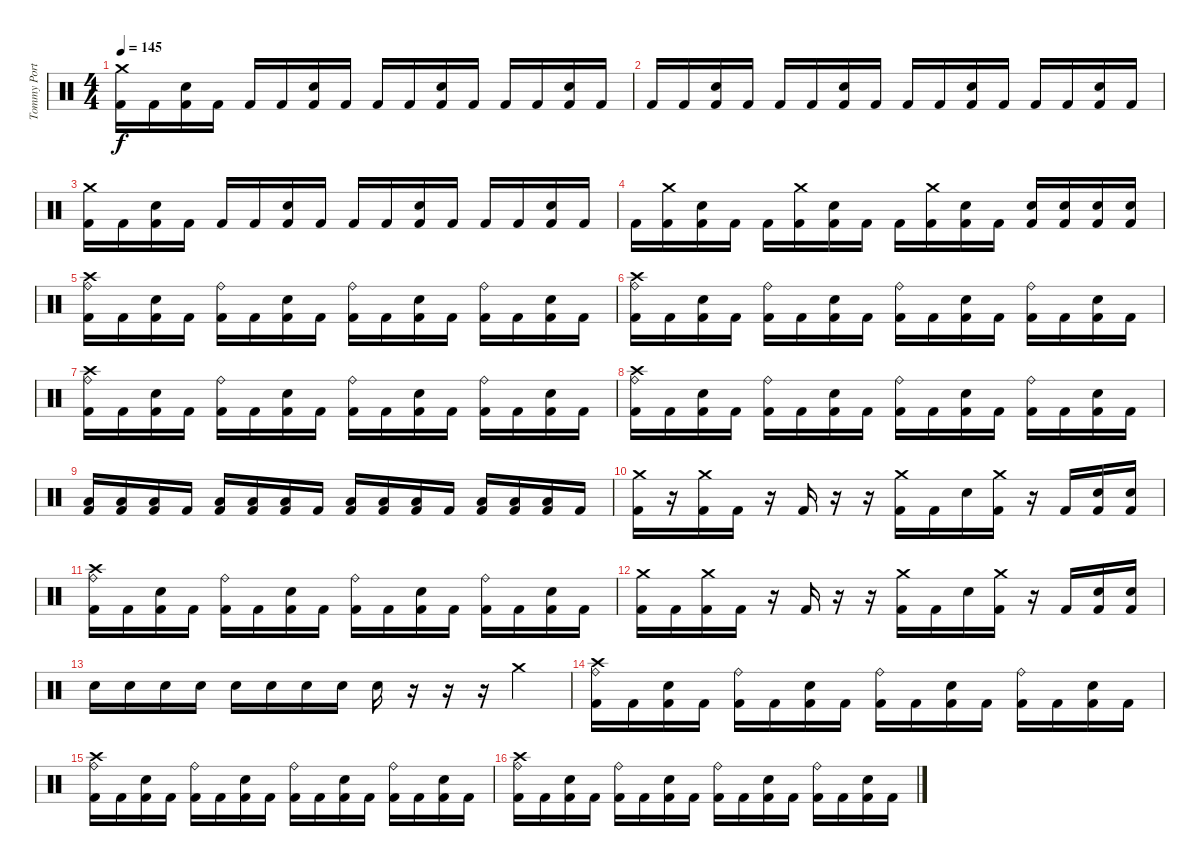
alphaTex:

\track ("Tommy Portino" "Tommy Port") {instrument percussion}
\staff {score}
\articulation defaults
\ts (4 4)
\tempo 145
\clef neutral
\ks c
("Kick (hit) 2" "Crash medium (hit)").16{dy f} "Kick (hit) 2".16 ("Kick (hit) 2" "Electric Snare (hit)").16 "Kick (hit) 2".16 "Kick (hit) 2".16 "Kick (hit) 2".16 ("Kick (hit) 2" "Electric Snare (hit)").16 "Kick (hit) 2".16 "Kick (hit) 2".16 "Kick (hit) 2".16 ("Kick (hit) 2" "Electric Snare (hit)").16 "Kick (hit) 2".16 "Kick (hit) 2".16 "Kick (hit) 2".16 ("Kick (hit) 2" "Electric Snare (hit)").16 "Kick (hit) 2".16 |
"Kick (hit) 2".16 "Kick (hit) 2".16 ("Kick (hit) 2" "Electric Snare (hit)").16 "Kick (hit) 2".16 "Kick (hit) 2".16 "Kick (hit) 2".16 ("Kick (hit) 2" "Electric Snare (hit)").16 "Kick (hit) 2".16 "Kick (hit) 2".16 "Kick (hit) 2".16 ("Kick (hit) 2" "Electric Snare (hit)").16 "Kick (hit) 2".16 "Kick (hit) 2".16 "Kick (hit) 2".16 ("Kick (hit) 2" "Electric Snare (hit)").16 "Kick (hit) 2".16 |
("Kick (hit) 2" "Crash medium (hit)").16 "Kick (hit) 2".16 ("Kick (hit) 2" "Electric Snare (hit)").16 "Kick (hit) 2".16 "Kick (hit) 2".16 "Kick (hit) 2".16 ("Kick (hit) 2" "Electric Snare (hit)").16 "Kick (hit) 2".16 "Kick (hit) 2".16 "Kick (hit) 2".16 ("Kick (hit) 2" "Electric Snare (hit)").16 "Kick (hit) 2".16 "Kick (hit) 2".16 "Kick (hit) 2".16 ("Kick (hit) 2" "Electric Snare (hit)").16 "Kick (hit) 2".16 |
"Kick (hit) 2".16 ("Kick (hit) 2" "Crash medium (hit)").16 ("Kick (hit) 2" "Electric Snare (hit)").16 "Kick (hit) 2".16 "Kick (hit) 2".16 ("Kick (hit) 2" "Crash medium (hit)").16 ("Kick (hit) 2" "Electric Snare (hit)").16 "Kick (hit) 2".16 "Kick (hit) 2".16 ("Kick (hit) 2" "Crash medium (hit)").16 ("Kick (hit) 2" "Electric Snare (hit)").16 "Kick (hit) 2".16 ("Kick (hit) 2" "Electric Snare (hit)").16 ("Kick (hit) 2" "Electric Snare (hit)").16 ("Kick (hit) 2" "Electric Snare (hit)").16 ("Kick (hit) 2" "Electric Snare (hit)").16 |
("Kick (hit) 2" "Ride (bell)" "Crash high (hit)").16 "Kick (hit) 2".16 ("Kick (hit) 2" "Electric Snare (hit)").16 "Kick (hit) 2".16 ("Kick (hit) 2" "Ride (bell)").16 "Kick (hit) 2".16 ("Kick (hit) 2" "Electric Snare (hit)").16 "Kick (hit) 2".16 ("Kick (hit) 2" "Ride (bell)").16 "Kick (hit) 2".16 ("Kick (hit) 2" "Electric Snare (hit)").16 "Kick (hit) 2".16 ("Kick (hit) 2" "Ride (bell)").16 "Kick (hit) 2".16 ("Kick (hit) 2" "Electric Snare (hit)").16 "Kick (hit) 2".16 |
("Kick (hit) 2" "Ride (bell)" "Crash high (hit)").16 "Kick (hit) 2".16 ("Kick (hit) 2" "Electric Snare (hit)").16 "Kick (hit) 2".16 ("Kick (hit) 2" "Ride (bell)").16 "Kick (hit) 2".16 ("Kick (hit) 2" "Electric Snare (hit)").16 "Kick (hit) 2".16 ("Kick (hit) 2" "Ride (bell)").16 "Kick (hit) 2".16 ("Kick (hit) 2" "Electric Snare (hit)").16 "Kick (hit) 2".16 ("Kick (hit) 2" "Ride (bell)").16 "Kick (hit) 2".16 ("Kick (hit) 2" "Electric Snare (hit)").16 "Kick (hit) 2".16 |
("Kick (hit) 2" "Ride (bell)" "Crash high (hit)").16 "Kick (hit) 2".16 ("Kick (hit) 2" "Electric Snare (hit)").16 "Kick (hit) 2".16 ("Kick (hit) 2" "Ride (bell)").16 "Kick (hit) 2".16 ("Kick (hit) 2" "Electric Snare (hit)").16 "Kick (hit) 2".16 ("Kick (hit) 2" "Ride (bell)").16 "Kick (hit) 2".16 ("Kick (hit) 2" "Electric Snare (hit)").16 "Kick (hit) 2".16 ("Kick (hit) 2" "Ride (bell)").16 "Kick (hit) 2".16 ("Kick (hit) 2" "Electric Snare (hit)").16 "Kick (hit) 2".16 |
("Kick (hit) 2" "Ride (bell)" "Crash high (hit)").16 "Kick (hit) 2".16 ("Kick (hit) 2" "Electric Snare (hit)").16 "Kick (hit) 2".16 ("Kick (hit) 2" "Ride (bell)").16 "Kick (hit) 2".16 ("Kick (hit) 2" "Electric Snare (hit)").16 "Kick (hit) 2".16 ("Kick (hit) 2" "Ride (bell)").16 "Kick (hit) 2".16 ("Kick (hit) 2" "Electric Snare (hit)").16 "Kick (hit) 2".16 ("Kick (hit) 2" "Ride (bell)").16 "Kick (hit) 2".16 ("Kick (hit) 2" "Electric Snare (hit)").16 "Kick (hit) 2".16 |
("Kick (hit) 2" "Low Tom (hit)").16 ("Kick (hit) 2" "Low Tom (hit)").16 ("Kick (hit) 2" "Low Tom (hit)").16 "Kick (hit) 2".16 ("Kick (hit) 2" "Low Tom (hit)").16 ("Kick (hit) 2" "Low Tom (hit)").16 ("Kick (hit) 2" "Low Tom (hit)").16 "Kick (hit) 2".16 ("Kick (hit) 2" "Low Tom (hit)").16 ("Kick (hit) 2" "Low Tom (hit)").16 ("Kick (hit) 2" "Low Tom (hit)").16 "Kick (hit) 2".16 ("Kick (hit) 2" "Low Tom (hit)").16 ("Kick (hit) 2" "Low Tom (hit)").16 ("Kick (hit) 2" "Low Tom (hit)").16 "Kick (hit) 2".16 |
("Kick (hit) 2" "Crash medium (hit)").16 r.16 ("Kick (hit) 2" "Crash medium (hit)").16 "Kick (hit) 2".16 r.16 "Kick (hit) 2".16 r.16 r.16 ("Kick (hit) 2" "Crash medium (hit)").16 "Kick (hit) 2".16 "Electric Snare (hit)".16 ("Kick (hit) 2" "Crash medium (hit)").16 r.16 "Kick (hit) 2".16 ("Kick (hit) 2" "Electric Snare (hit)").16 ("Kick (hit) 2" "Electric Snare (hit)").16 |
("Kick (hit) 2" "Ride (bell)" "Crash high (hit)").16 "Kick (hit) 2".16 ("Kick (hit) 2" "Electric Snare (hit)").16 "Kick (hit) 2".16 ("Kick (hit) 2" "Ride (bell)").16 "Kick (hit) 2".16 ("Kick (hit) 2" "Electric Snare (hit)").16 "Kick (hit) 2".16 ("Kick (hit) 2" "Ride (bell)").16 "Kick (hit) 2".16 ("Kick (hit) 2" "Electric Snare (hit)").16 "Kick (hit) 2".16 ("Kick (hit) 2" "Ride (bell)").16 "Kick (hit) 2".16 ("Kick (hit) 2" "Electric Snare (hit)").16 "Kick (hit) 2".16 |
("Kick (hit) 2" "Crash medium (hit)").16 "Kick (hit) 2".16 ("Kick (hit) 2" "Crash medium (hit)").16 "Kick (hit) 2".16 r.16 "Kick (hit) 2".16 r.16 r.16 ("Kick (hit) 2" "Crash medium (hit)").16 "Kick (hit) 2".16 "Electric Snare (hit)".16 ("Kick (hit) 2" "Crash medium (hit)").16 r.16 "Kick (hit) 2".16 ("Kick (hit) 2" "Electric Snare (hit)").16 ("Kick (hit) 2" "Electric Snare (hit)").16 |
"Electric Snare (hit)".16 "Electric Snare (hit)".16 "Electric Snare (hit)".16 "Electric Snare (hit)".16 "Electric Snare (hit)".16 "Electric Snare (hit)".16 "Electric Snare (hit)".16 "Electric Snare (hit)".16 "Electric Snare (hit)".16 r.16 r.16 r.16 "Crash medium (hit)".4 |
("Kick (hit) 2" "Ride (bell)" "Crash high (hit)").16 "Kick (hit) 2".16 ("Kick (hit) 2" "Electric Snare (hit)").16 "Kick (hit) 2".16 ("Kick (hit) 2" "Ride (bell)").16 "Kick (hit) 2".16 ("Kick (hit) 2" "Electric Snare (hit)").16 "Kick (hit) 2".16 ("Kick (hit) 2" "Ride (bell)").16 "Kick (hit) 2".16 ("Kick (hit) 2" "Electric Snare (hit)").16 "Kick (hit) 2".16 ("Kick (hit) 2" "Ride (bell)").16 "Kick (hit) 2".16 ("Kick (hit) 2" "Electric Snare (hit)").16 "Kick (hit) 2".16 |
("Kick (hit) 2" "Ride (bell)" "Crash high (hit)").16 "Kick (hit) 2".16 ("Kick (hit) 2" "Electric Snare (hit)").16 "Kick (hit) 2".16 ("Kick (hit) 2" "Ride (bell)").16 "Kick (hit) 2".16 ("Kick (hit) 2" "Electric Snare (hit)").16 "Kick (hit) 2".16 ("Kick (hit) 2" "Ride (bell)").16 "Kick (hit) 2".16 ("Kick (hit) 2" "Electric Snare (hit)").16 "Kick (hit) 2".16 ("Kick (hit) 2" "Ride (bell)").16 "Kick (hit) 2".16 ("Kick (hit) 2" "Electric Snare (hit)").16 "Kick (hit) 2".16 |
("Kick (hit) 2" "Ride (bell)" "Crash high (hit)").16 "Kick (hit) 2".16 ("Kick (hit) 2" "Electric Snare (hit)").16 "Kick (hit) 2".16 ("Kick (hit) 2" "Ride (bell)").16 "Kick (hit) 2".16 ("Kick (hit) 2" "Electric Snare (hit)").16 "Kick (hit) 2".16 ("Kick (hit) 2" "Ride (bell)").16 "Kick (hit) 2".16 ("Kick (hit) 2" "Electric Snare (hit)").16 "Kick (hit) 2".16 ("Kick (hit) 2" "Ride (bell)").16 "Kick (hit) 2".16 ("Kick (hit) 2" "Electric Snare (hit)").16 "Kick (hit) 2".16
